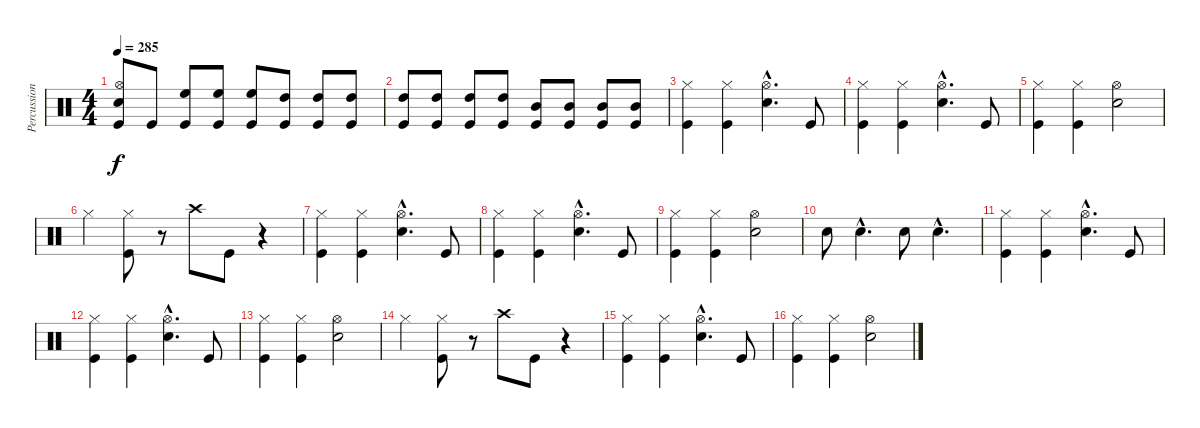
\track ("Percussion" "Percussion") {instrument percussion}
\staff {score}
\articulation defaults
\ts (4 4)
\tempo 285
\clef neutral
\ks c
("Snare (hit) 2" "Hi-Hat (open)" "Kick (hit)").8{dy f} "Kick (hit)".8 ("High Floor Tom (hit)" "Kick (hit)").8 ("High Floor Tom (hit)" "Kick (hit)").8 ("High Floor Tom (hit)" "Kick (hit)").8 ("High Tom (hit)" "Kick (hit)").8 ("High Tom (hit)" "Kick (hit)").8 ("High Tom (hit)" "Kick (hit)").8 |
("High Tom (hit)" "Kick (hit)").8 ("High Tom (hit)" "Kick (hit)").8 ("High Tom (hit)" "Kick (hit)").8 ("High Tom (hit)" "Kick (hit)").8 ("Mid Tom (hit)" "Kick (hit)").8 ("Mid Tom (hit)" "Kick (hit)").8 ("Mid Tom (hit)" "Kick (hit)").8 ("Mid Tom (hit)" "Kick (hit)").8 |
("Hi-Hat (closed)" "Kick (hit)").4 ("Hi-Hat (closed)" "Kick (hit)").4 ("Snare (hit) 2"{hac} "Hi-Hat (open)"{hac}).4{d} "Kick (hit)".8 |
("Hi-Hat (closed)" "Kick (hit)").4 ("Hi-Hat (closed)" "Kick (hit)").4 ("Snare (hit) 2"{hac} "Hi-Hat (open)"{hac}).4{d} "Kick (hit)".8 |
("Hi-Hat (closed)" "Kick (hit)").4 ("Hi-Hat (closed)" "Kick (hit)").4 ("Snare (hit) 2" "Hi-Hat (open)").2 |
"Hi-Hat (closed)".4 ("Hi-Hat (closed)" "Kick (hit)").8 r.8 "Crash high (hit)".8 "Kick (hit)".8 r.4 |
("Hi-Hat (closed)" "Kick (hit)").4 ("Hi-Hat (closed)" "Kick (hit)").4 ("Snare (hit) 2"{hac} "Hi-Hat (open)"{hac}).4{d} "Kick (hit)".8 |
("Hi-Hat (closed)" "Kick (hit)").4 ("Hi-Hat (closed)" "Kick (hit)").4 ("Snare (hit) 2"{hac} "Hi-Hat (open)"{hac}).4{d} "Kick (hit)".8 |
("Hi-Hat (closed)" "Kick (hit)").4 ("Hi-Hat (closed)" "Kick (hit)").4 ("Snare (hit) 2" "Hi-Hat (open)").2 |
"Snare (hit) 2".8 "Snare (hit) 2"{hac}.4{d} "Snare (hit) 2".8 "Snare (hit) 2"{hac}.4{d} |
("Hi-Hat (closed)" "Kick (hit)").4 ("Hi-Hat (closed)" "Kick (hit)").4 ("Snare (hit) 2"{hac} "Hi-Hat (open)"{hac}).4{d} "Kick (hit)".8 |
("Hi-Hat (closed)" "Kick (hit)").4 ("Hi-Hat (closed)" "Kick (hit)").4 ("Snare (hit) 2"{hac} "Hi-Hat (open)"{hac}).4{d} "Kick (hit)".8 |
("Hi-Hat (closed)" "Kick (hit)").4 ("Hi-Hat (closed)" "Kick (hit)").4 ("Snare (hit) 2" "Hi-Hat (open)").2 |
"Hi-Hat (closed)".4 ("Hi-Hat (closed)" "Kick (hit)").8 r.8 "Crash high (hit)".8 "Kick (hit)".8 r.4 |
("Hi-Hat (closed)" "Kick (hit)").4 ("Hi-Hat (closed)" "Kick (hit)").4 ("Snare (hit) 2"{hac} "Hi-Hat (open)"{hac}).4{d} "Kick (hit)".8 |
("Hi-Hat (closed)" "Kick (hit)").4 ("Hi-Hat (closed)" "Kick (hit)").4 ("Snare (hit) 2" "Hi-Hat (open)").2
